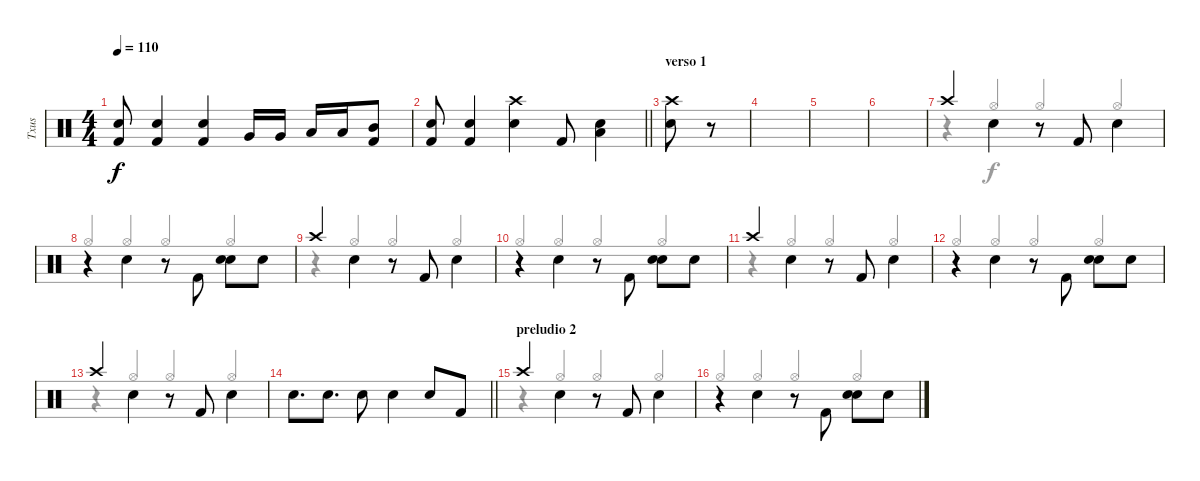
\track ("Txus" "Txus") {instrument percussion}
\staff {score}
\articulation defaults
\voice
\ts (4 4)
\tempo 110
\clef neutral
\ks c
("Kick (hit) 2" "Snare (hit) 2").8{dy f} ("Kick (hit) 2" "Snare (hit) 2").4 ("Kick (hit) 2" "Snare (hit) 2").4 "Very Low Tom (hit)".16 "Very Low Tom (hit)".16 "Low Tom (hit)".16 "Low Tom (hit)".16 ("Kick (hit) 2" "Mid Tom (hit)").8 |
\barLineRight lightlight
("Snare (hit) 2" "Kick (hit) 2").8 ("Kick (hit) 2" "Snare (hit) 2").4 ("Crash high (hit)" "Snare (hit) 2").4 "Kick (hit) 2".8 ("Snare (hit) 2" "Low Floor Tom (hit)").4 |
\section ("" "verso 1")
("Snare (hit) 2" "Crash high (hit)").8 r.8 |
|
|
|
"Crash high (hit)".4 "Snare (hit) 2".4{beam Down} r.8 "Kick (hit) 2".8 "Snare (hit) 2".4{beam Down} |
r.4 "Snare (hit) 2".4{beam Down} r.8 "Kick (hit) 2".8{beam Down} ("Snare (hit) 2" "Snare (hit) 2").8{beam Down} "Snare (hit) 2".8 |
"Crash high (hit)".4 "Snare (hit) 2".4{beam Down} r.8 "Kick (hit) 2".8 "Snare (hit) 2".4{beam Down} |
r.4 "Snare (hit) 2".4{beam Down} r.8 "Kick (hit) 2".8{beam Down} ("Snare (hit) 2" "Snare (hit) 2").8{beam Down} "Snare (hit) 2".8 |
"Crash high (hit)".4 "Snare (hit) 2".4{beam Down} r.8 "Kick (hit) 2".8 "Snare (hit) 2".4{beam Down} |
r.4 "Snare (hit) 2".4{beam Down} r.8 "Kick (hit) 2".8{beam Down} ("Snare (hit) 2" "Snare (hit) 2").8{beam Down} "Snare (hit) 2".8 |
"Crash high (hit)".4 "Snare (hit) 2".4{beam Down} r.8 "Kick (hit) 2".8 "Snare (hit) 2".4{beam Down} |
\barLineRight lightlight "Snare (hit) 2".8{d} "Snare (hit) 2".8{d} "Snare (hit) 2".8 "Snare (hit) 2".4 "Snare (hit) 2".8 "Kick (hit) 2".8
|
\section ("" "preludio 2")
"Crash high (hit)".4 "Snare (hit) 2".4{beam Down} r.8 "Kick (hit) 2".8 "Snare (hit) 2".4{beam Down} |
r.4 "Snare (hit) 2".4{beam Down} r.8 "Kick (hit) 2".8{beam Down} ("Snare (hit) 2" "Snare (hit) 2").8{beam Down} "Snare (hit) 2".8
\voice
\clef neutral
\ottava regular
\simile none
\ks c
|
\barLineRight lightlight
|
|
|
|
|
r.4{beam Up} "Hi-Hat (open)".4{beam Up} "Hi-Hat (open)".4{beam Up} "Hi-Hat (open)".4{beam Up} |
"Hi-Hat (open)".4{beam Up} "Hi-Hat (open)".4{beam Up} "Hi-Hat (open)".4{beam Up} "Hi-Hat (open)".4{beam Up} |
r.4{beam Up} "Hi-Hat (open)".4{beam Up} "Hi-Hat (open)".4{beam Up} "Hi-Hat (open)".4{beam Up} |
"Hi-Hat (open)".4{beam Up} "Hi-Hat (open)".4{beam Up} "Hi-Hat (open)".4{beam Up} "Hi-Hat (open)".4{beam Up} |
r.4{beam Up} "Hi-Hat (open)".4{beam Up} "Hi-Hat (open)".4{beam Up} "Hi-Hat (open)".4{beam Up} |
"Hi-Hat (open)".4{beam Up} "Hi-Hat (open)".4{beam Up} "Hi-Hat (open)".4{beam Up} "Hi-Hat (open)".4{beam Up} |
r.4{beam Up} "Hi-Hat (open)".4{beam Up} "Hi-Hat (open)".4{beam Up} "Hi-Hat (open)".4{beam Up} |
\barLineRight lightlight
|
r.4{beam Up} "Hi-Hat (open)".4{beam Up} "Hi-Hat (open)".4{beam Up} "Hi-Hat (open)".4{beam Up} |
"Hi-Hat (open)".4{beam Up} "Hi-Hat (open)".4{beam Up} "Hi-Hat (open)".4{beam Up} "Hi-Hat (open)".4{beam Up}
